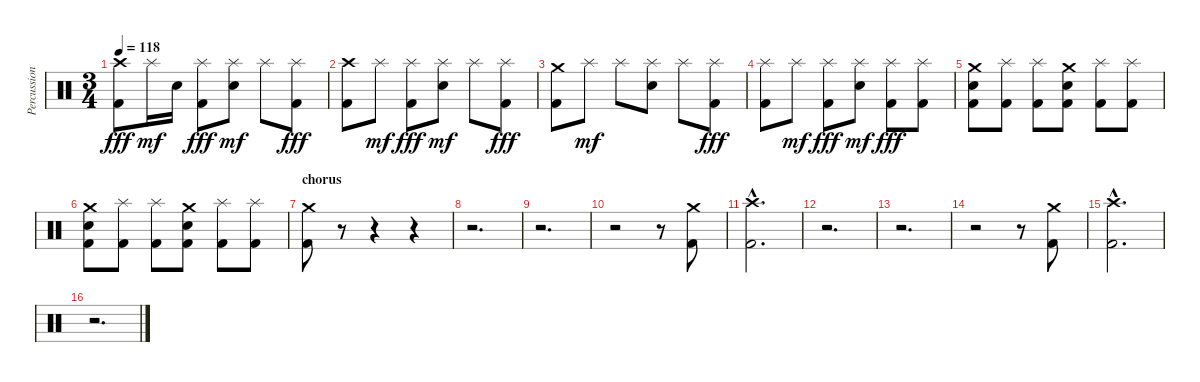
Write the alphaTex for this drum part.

\track ("Percussion" "Percussion") {instrument percussion}
\staff {score}
\articulation defaults
\ts (3 4)
\tempo 118
\clef neutral
\ks c
("Crash high (hit)" "Kick (hit) 2").8{dy fff} "Splash (hit)".16{dy mf} "Electric Snare (hit)".16 ("Splash (hit)" "Kick (hit) 2").8{dy fff} ("Splash (hit)" "Electric Snare (hit)").8{dy mf} "Splash (hit)".8 ("Splash (hit)" "Kick (hit) 2").8{dy fff} |
("Crash high (hit)" "Kick (hit) 2").8 "Splash (hit)".8{dy mf} ("Splash (hit)" "Kick (hit) 2").8{dy fff} ("Splash (hit)" "Electric Snare (hit)").8{dy mf} "Splash (hit)".8 ("Splash (hit)" "Kick (hit) 2").8{dy fff} |
("Crash medium (hit)" "Kick (hit) 2").8 "Splash (hit)".8{dy mf} "Splash (hit)".8 ("Splash (hit)" "Electric Snare (hit)").8 "Splash (hit)".8 ("Splash (hit)" "Kick (hit) 2").8{dy fff} |
("Splash (hit)" "Kick (hit) 2").8 "Splash (hit)".8{dy mf} ("Splash (hit)" "Kick (hit) 2").8{dy fff} ("Splash (hit)" "Electric Snare (hit)").8{dy mf} ("Splash (hit)" "Kick (hit) 2").8{dy fff} ("Splash (hit)" "Kick (hit) 2").8 |
("Crash medium (hit)" "Electric Snare (hit)" "Kick (hit) 2").8 ("Splash (hit)" "Kick (hit) 2").8 ("Splash (hit)" "Kick (hit) 2").8 ("Crash medium (hit)" "Electric Snare (hit)" "Kick (hit) 2").8 ("Splash (hit)" "Kick (hit) 2").8 ("Splash (hit)" "Kick (hit) 2").8 |
("Crash medium (hit)" "Electric Snare (hit)" "Kick (hit) 2").8 ("Splash (hit)" "Kick (hit) 2").8 ("Splash (hit)" "Kick (hit) 2").8 ("Crash medium (hit)" "Electric Snare (hit)" "Kick (hit) 2").8 ("Splash (hit)" "Kick (hit) 2").8 ("Splash (hit)" "Kick (hit) 2").8 |
\section ("" "chorus")
("Crash medium (hit)" "Kick (hit) 2").8 r.8 r.4 r.4 |
r.2{d} |
r.2{d} |
r.2 r.8 ("Crash medium (hit)" "Kick (hit) 2").8 |
("Crash high (hit)"{hac} "Kick (hit) 2"{hac}).2{d} |
r.2{d} |
r.2{d} |
r.2 r.8 ("Crash medium (hit)" "Kick (hit) 2").8 |
\section ("" "")
("Crash high (hit)"{hac} "Kick (hit) 2"{hac}).2{d} |
r.2{d}
